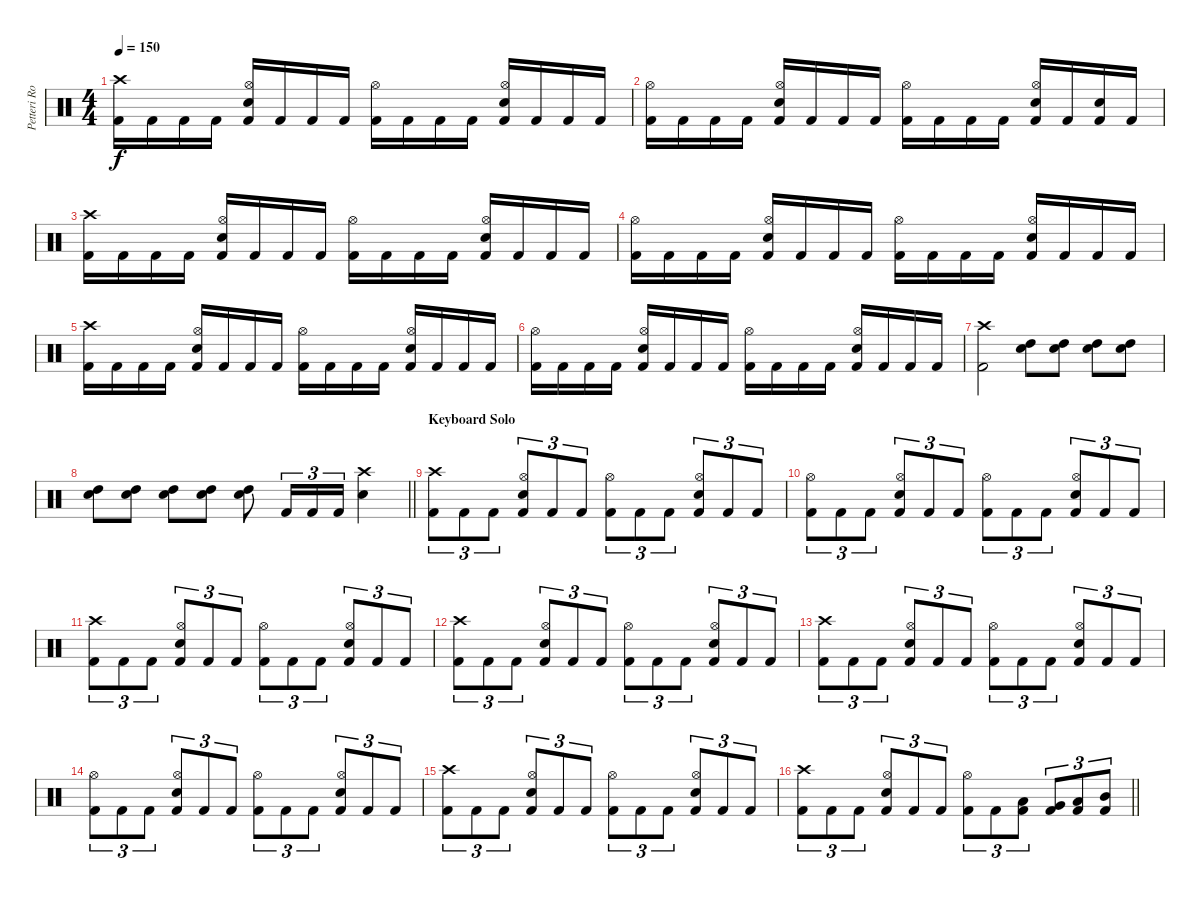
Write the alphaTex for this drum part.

\track ("Petteri Rosenbom" "Petteri Ro") {instrument percussion}
\staff {score}
\articulation defaults
\ts (4 4)
\tempo 150
\clef neutral
\ks c
("Crash high (hit)" "Kick (hit) 2").16{dy f} "Kick (hit) 2".16 "Kick (hit) 2".16 "Kick (hit) 2".16 ("Hi-Hat (open)" "Electric Snare (hit)" "Kick (hit) 2").16 "Kick (hit) 2".16 "Kick (hit) 2".16 "Kick (hit) 2".16 ("Hi-Hat (open)" "Kick (hit) 2").16 "Kick (hit) 2".16 "Kick (hit) 2".16 "Kick (hit) 2".16 ("Hi-Hat (open)" "Electric Snare (hit)" "Kick (hit) 2").16 "Kick (hit) 2".16 "Kick (hit) 2".16 "Kick (hit) 2".16 |
("Hi-Hat (open)" "Kick (hit) 2").16 "Kick (hit) 2".16 "Kick (hit) 2".16 "Kick (hit) 2".16 ("Hi-Hat (open)" "Electric Snare (hit)" "Kick (hit) 2").16 "Kick (hit) 2".16 "Kick (hit) 2".16 "Kick (hit) 2".16 ("Hi-Hat (open)" "Kick (hit) 2").16 "Kick (hit) 2".16 "Kick (hit) 2".16 "Kick (hit) 2".16 ("Hi-Hat (open)" "Electric Snare (hit)" "Kick (hit) 2").16 "Kick (hit) 2".16 ("Electric Snare (hit)" "Kick (hit) 2").16 "Kick (hit) 2".16 |
("Crash high (hit)" "Kick (hit) 2").16 "Kick (hit) 2".16 "Kick (hit) 2".16 "Kick (hit) 2".16 ("Hi-Hat (open)" "Electric Snare (hit)" "Kick (hit) 2").16 "Kick (hit) 2".16 "Kick (hit) 2".16 "Kick (hit) 2".16 ("Hi-Hat (open)" "Kick (hit) 2").16 "Kick (hit) 2".16 "Kick (hit) 2".16 "Kick (hit) 2".16 ("Hi-Hat (open)" "Electric Snare (hit)" "Kick (hit) 2").16 "Kick (hit) 2".16 "Kick (hit) 2".16 "Kick (hit) 2".16 |
("Hi-Hat (open)" "Kick (hit) 2").16 "Kick (hit) 2".16 "Kick (hit) 2".16 "Kick (hit) 2".16 ("Hi-Hat (open)" "Electric Snare (hit)" "Kick (hit) 2").16 "Kick (hit) 2".16 "Kick (hit) 2".16 "Kick (hit) 2".16 ("Hi-Hat (open)" "Kick (hit) 2").16 "Kick (hit) 2".16 "Kick (hit) 2".16 "Kick (hit) 2".16 ("Hi-Hat (open)" "Electric Snare (hit)" "Kick (hit) 2").16 "Kick (hit) 2".16 "Kick (hit) 2".16 "Kick (hit) 2".16 |
("Crash high (hit)" "Kick (hit) 2").16 "Kick (hit) 2".16 "Kick (hit) 2".16 "Kick (hit) 2".16 ("Hi-Hat (open)" "Electric Snare (hit)" "Kick (hit) 2").16 "Kick (hit) 2".16 "Kick (hit) 2".16 "Kick (hit) 2".16 ("Hi-Hat (open)" "Kick (hit) 2").16 "Kick (hit) 2".16 "Kick (hit) 2".16 "Kick (hit) 2".16 ("Hi-Hat (open)" "Electric Snare (hit)" "Kick (hit) 2").16 "Kick (hit) 2".16 "Kick (hit) 2".16 "Kick (hit) 2".16 |
("Hi-Hat (open)" "Kick (hit) 2").16 "Kick (hit) 2".16 "Kick (hit) 2".16 "Kick (hit) 2".16 ("Hi-Hat (open)" "Electric Snare (hit)" "Kick (hit) 2").16 "Kick (hit) 2".16 "Kick (hit) 2".16 "Kick (hit) 2".16 ("Hi-Hat (open)" "Kick (hit) 2").16 "Kick (hit) 2".16 "Kick (hit) 2".16 "Kick (hit) 2".16 ("Hi-Hat (open)" "Electric Snare (hit)" "Kick (hit) 2").16 "Kick (hit) 2".16 "Kick (hit) 2".16 "Kick (hit) 2".16 |
("Crash high (hit)" "Kick (hit) 2").2 ("High Tom (hit)" "Electric Snare (hit)").8 ("High Tom (hit)" "Electric Snare (hit)").8 ("High Tom (hit)" "Electric Snare (hit)").8 ("High Tom (hit)" "Electric Snare (hit)").8 |
\barLineRight lightlight
("High Tom (hit)" "Electric Snare (hit)").8 ("High Tom (hit)" "Electric Snare (hit)").8 ("High Tom (hit)" "Electric Snare (hit)").8 ("High Tom (hit)" "Electric Snare (hit)").8 ("High Tom (hit)" "Electric Snare (hit)").8 "Kick (hit) 2".16{tu (3 2)} "Kick (hit) 2".16{tu (3 2)} "Kick (hit) 2".16{tu (3 2)} ("Crash high (hit)" "Electric Snare (hit)").4 |
\section ("" "Keyboard Solo")
("Crash high (hit)" "Kick (hit) 2").8{tu (3 2)} "Kick (hit) 2".8{tu (3 2)} "Kick (hit) 2".8{tu (3 2)} ("Hi-Hat (open)" "Electric Snare (hit)" "Kick (hit) 2").8{tu (3 2)} "Kick (hit) 2".8{tu (3 2)} "Kick (hit) 2".8{tu (3 2)} ("Hi-Hat (open)" "Kick (hit) 2").8{tu (3 2)} "Kick (hit) 2".8{tu (3 2)} "Kick (hit) 2".8{tu (3 2)} ("Hi-Hat (open)" "Electric Snare (hit)" "Kick (hit) 2").8{tu (3 2)} "Kick (hit) 2".8{tu (3 2)} "Kick (hit) 2".8{tu (3 2)} |
("Hi-Hat (open)" "Kick (hit) 2").8{tu (3 2)} "Kick (hit) 2".8{tu (3 2)} "Kick (hit) 2".8{tu (3 2)} ("Hi-Hat (open)" "Electric Snare (hit)" "Kick (hit) 2").8{tu (3 2)} "Kick (hit) 2".8{tu (3 2)} "Kick (hit) 2".8{tu (3 2)} ("Hi-Hat (open)" "Kick (hit) 2").8{tu (3 2)} "Kick (hit) 2".8{tu (3 2)} "Kick (hit) 2".8{tu (3 2)} ("Hi-Hat (open)" "Electric Snare (hit)" "Kick (hit) 2").8{tu (3 2)} "Kick (hit) 2".8{tu (3 2)} "Kick (hit) 2".8{tu (3 2)} |
("Crash high (hit)" "Kick (hit) 2").8{tu (3 2)} "Kick (hit) 2".8{tu (3 2)} "Kick (hit) 2".8{tu (3 2)} ("Hi-Hat (open)" "Electric Snare (hit)" "Kick (hit) 2").8{tu (3 2)} "Kick (hit) 2".8{tu (3 2)} "Kick (hit) 2".8{tu (3 2)} ("Hi-Hat (open)" "Kick (hit) 2").8{tu (3 2)} "Kick (hit) 2".8{tu (3 2)} "Kick (hit) 2".8{tu (3 2)} ("Hi-Hat (open)" "Electric Snare (hit)" "Kick (hit) 2").8{tu (3 2)} "Kick (hit) 2".8{tu (3 2)} "Kick (hit) 2".8{tu (3 2)} |
("Crash high (hit)" "Kick (hit) 2").8{tu (3 2)} "Kick (hit) 2".8{tu (3 2)} "Kick (hit) 2".8{tu (3 2)} ("Hi-Hat (open)" "Electric Snare (hit)" "Kick (hit) 2").8{tu (3 2)} "Kick (hit) 2".8{tu (3 2)} "Kick (hit) 2".8{tu (3 2)} ("Hi-Hat (open)" "Kick (hit) 2").8{tu (3 2)} "Kick (hit) 2".8{tu (3 2)} "Kick (hit) 2".8{tu (3 2)} ("Hi-Hat (open)" "Electric Snare (hit)" "Kick (hit) 2").8{tu (3 2)} "Kick (hit) 2".8{tu (3 2)} "Kick (hit) 2".8{tu (3 2)} |
("Crash high (hit)" "Kick (hit) 2").8{tu (3 2)} "Kick (hit) 2".8{tu (3 2)} "Kick (hit) 2".8{tu (3 2)} ("Hi-Hat (open)" "Electric Snare (hit)" "Kick (hit) 2").8{tu (3 2)} "Kick (hit) 2".8{tu (3 2)} "Kick (hit) 2".8{tu (3 2)} ("Hi-Hat (open)" "Kick (hit) 2").8{tu (3 2)} "Kick (hit) 2".8{tu (3 2)} "Kick (hit) 2".8{tu (3 2)} ("Hi-Hat (open)" "Electric Snare (hit)" "Kick (hit) 2").8{tu (3 2)} "Kick (hit) 2".8{tu (3 2)} "Kick (hit) 2".8{tu (3 2)} |
("Hi-Hat (open)" "Kick (hit) 2").8{tu (3 2)} "Kick (hit) 2".8{tu (3 2)} "Kick (hit) 2".8{tu (3 2)} ("Hi-Hat (open)" "Electric Snare (hit)" "Kick (hit) 2").8{tu (3 2)} "Kick (hit) 2".8{tu (3 2)} "Kick (hit) 2".8{tu (3 2)} ("Hi-Hat (open)" "Kick (hit) 2").8{tu (3 2)} "Kick (hit) 2".8{tu (3 2)} "Kick (hit) 2".8{tu (3 2)} ("Hi-Hat (open)" "Electric Snare (hit)" "Kick (hit) 2").8{tu (3 2)} "Kick (hit) 2".8{tu (3 2)} "Kick (hit) 2".8{tu (3 2)} |
("Crash high (hit)" "Kick (hit) 2").8{tu (3 2)} "Kick (hit) 2".8{tu (3 2)} "Kick (hit) 2".8{tu (3 2)} ("Hi-Hat (open)" "Electric Snare (hit)" "Kick (hit) 2").8{tu (3 2)} "Kick (hit) 2".8{tu (3 2)} "Kick (hit) 2".8{tu (3 2)} ("Hi-Hat (open)" "Kick (hit) 2").8{tu (3 2)} "Kick (hit) 2".8{tu (3 2)} "Kick (hit) 2".8{tu (3 2)} ("Hi-Hat (open)" "Electric Snare (hit)" "Kick (hit) 2").8{tu (3 2)} "Kick (hit) 2".8{tu (3 2)} "Kick (hit) 2".8{tu (3 2)} |
\barLineRight lightlight
("Crash high (hit)" "Kick (hit) 2").8{tu (3 2)} "Kick (hit) 2".8{tu (3 2)} "Kick (hit) 2".8{tu (3 2)} ("Hi-Hat (open)" "Electric Snare (hit)" "Kick (hit) 2").8{tu (3 2)} "Kick (hit) 2".8{tu (3 2)} "Kick (hit) 2".8{tu (3 2)} ("Hi-Hat (open)" "Kick (hit) 2").8{tu (3 2)} "Kick (hit) 2".8{tu (3 2)} ("Low Floor Tom (hit)" "Kick (hit) 2").8{tu (3 2)} ("Very Low Tom (hit)" "Kick (hit) 2").8{tu (3 2)} ("Low Tom (hit)" "Kick (hit) 2").8{tu (3 2)} ("Mid Tom (hit)" "Kick (hit) 2").8{tu (3 2)}
